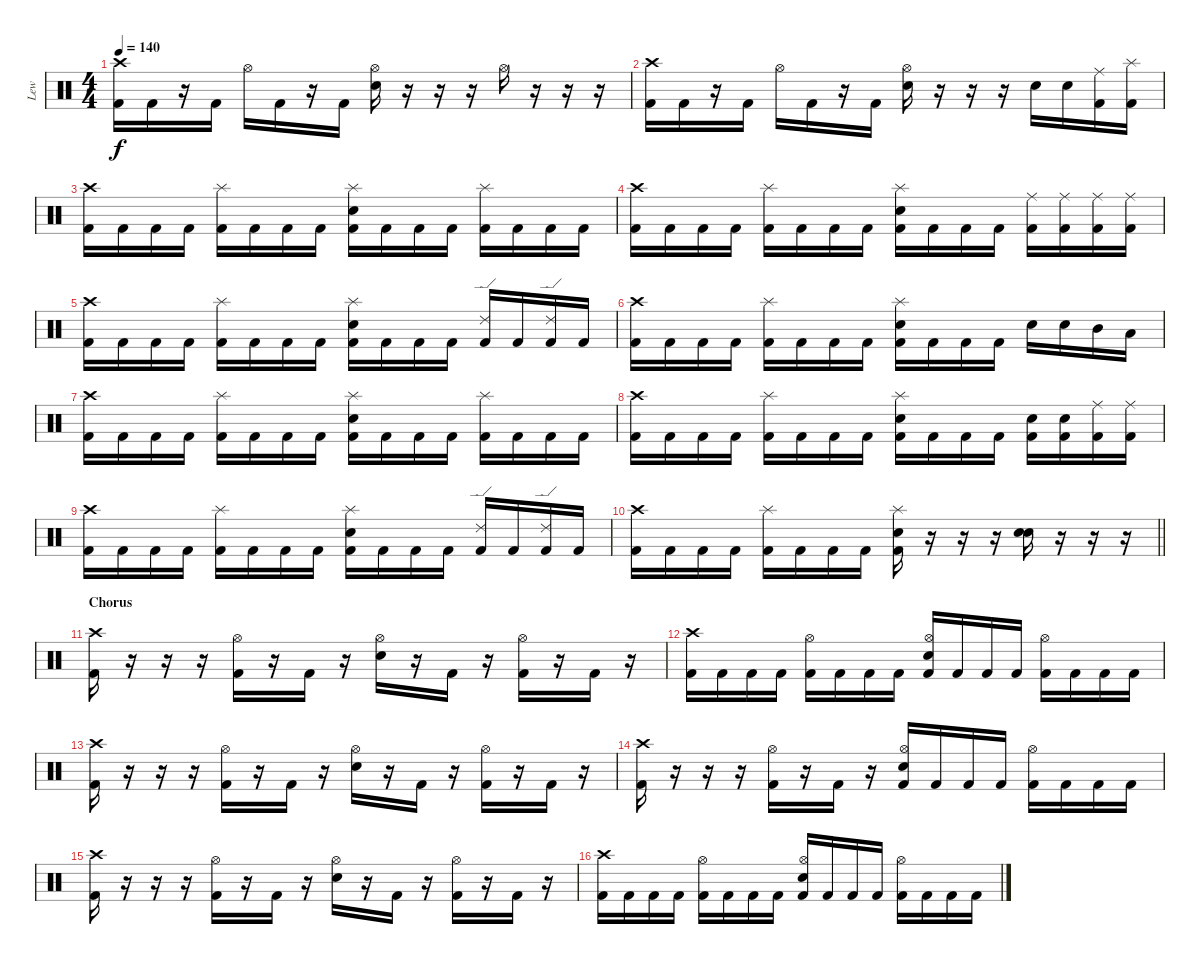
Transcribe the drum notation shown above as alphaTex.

\track ("Lew" "Lew") {instrument percussion}
\staff {score}
\articulation defaults
\ts (4 4)
\tempo 140
\clef neutral
\ks c
("Crash high (hit)" "Kick (hit) 2").16{dy f} "Kick (hit) 2".16 r.16 "Kick (hit) 2".16 "Hi-Hat (open)".16 "Kick (hit) 2".16 r.16 "Kick (hit) 2".16 ("Hi-Hat (open)" "Electric Snare (hit)").16 r.16 r.16 r.16 "Hi-Hat (open)".16 r.16 r.16 r.16 |
("Crash high (hit)" "Kick (hit) 2").16 "Kick (hit) 2".16 r.16 "Kick (hit) 2".16 "Hi-Hat (open)".16 "Kick (hit) 2".16 r.16 "Kick (hit) 2".16 ("Hi-Hat (open)" "Electric Snare (hit)").16 r.16 r.16 r.16 "Electric Snare (hit)".16 "Electric Snare (hit)".16 ("Ride (middle)" "Kick (hit) 2").16 ("Splash (hit)" "Kick (hit) 2").16 |
("Crash high (hit)" "Kick (hit) 2").16 "Kick (hit) 2".16 "Kick (hit) 2".16 "Kick (hit) 2".16 ("Splash (hit)" "Kick (hit) 2").16 "Kick (hit) 2".16 "Kick (hit) 2".16 "Kick (hit) 2".16 ("Splash (hit)" "Electric Snare (hit)" "Kick (hit) 2").16 "Kick (hit) 2".16 "Kick (hit) 2".16 "Kick (hit) 2".16 ("Splash (hit)" "Kick (hit) 2").16 "Kick (hit) 2".16 "Kick (hit) 2".16 "Kick (hit) 2".16 |
("Crash high (hit)" "Kick (hit) 2").16 "Kick (hit) 2".16 "Kick (hit) 2".16 "Kick (hit) 2".16 ("Splash (hit)" "Kick (hit) 2").16 "Kick (hit) 2".16 "Kick (hit) 2".16 "Kick (hit) 2".16 ("Splash (hit)" "Electric Snare (hit)" "Kick (hit) 2").16 "Kick (hit) 2".16 "Kick (hit) 2".16 "Kick (hit) 2".16 ("Ride (middle)" "Kick (hit) 2").16 ("Ride (middle)" "Kick (hit) 2").16 ("Ride (middle)" "Kick (hit) 2").16 ("Ride (middle)" "Kick (hit) 2").16 |
("Crash high (hit)" "Kick (hit) 2").16 "Kick (hit) 2".16 "Kick (hit) 2".16 "Kick (hit) 2".16 ("Splash (hit)" "Kick (hit) 2").16 "Kick (hit) 2".16 "Kick (hit) 2".16 "Kick (hit) 2".16 ("Splash (hit)" "Electric Snare (hit)" "Kick (hit) 2").16 "Kick (hit) 2".16 "Kick (hit) 2".16 "Kick (hit) 2".16 ("Ride (edge) 2" "Kick (hit) 2").16 "Kick (hit) 2".16 ("Ride (edge) 2" "Kick (hit) 2").16 "Kick (hit) 2".16 |
("Crash high (hit)" "Kick (hit) 2").16 "Kick (hit) 2".16 "Kick (hit) 2".16 "Kick (hit) 2".16 ("Splash (hit)" "Kick (hit) 2").16 "Kick (hit) 2".16 "Kick (hit) 2".16 "Kick (hit) 2".16 ("Splash (hit)" "Electric Snare (hit)" "Kick (hit) 2").16 "Kick (hit) 2".16 "Kick (hit) 2".16 "Kick (hit) 2".16 "Electric Snare (hit)".16 "Electric Snare (hit)".16 "Mid Tom (hit)".16 "Low Tom (hit)".16 |
("Crash high (hit)" "Kick (hit) 2").16 "Kick (hit) 2".16 "Kick (hit) 2".16 "Kick (hit) 2".16 ("Splash (hit)" "Kick (hit) 2").16 "Kick (hit) 2".16 "Kick (hit) 2".16 "Kick (hit) 2".16 ("Splash (hit)" "Electric Snare (hit)" "Kick (hit) 2").16 "Kick (hit) 2".16 "Kick (hit) 2".16 "Kick (hit) 2".16 ("Splash (hit)" "Kick (hit) 2").16 "Kick (hit) 2".16 "Kick (hit) 2".16 "Kick (hit) 2".16 |
("Crash high (hit)" "Kick (hit) 2").16 "Kick (hit) 2".16 "Kick (hit) 2".16 "Kick (hit) 2".16 ("Splash (hit)" "Kick (hit) 2").16 "Kick (hit) 2".16 "Kick (hit) 2".16 "Kick (hit) 2".16 ("Splash (hit)" "Electric Snare (hit)" "Kick (hit) 2").16 "Kick (hit) 2".16 "Kick (hit) 2".16 "Kick (hit) 2".16 ("Electric Snare (hit)" "Kick (hit) 2").16 ("Electric Snare (hit)" "Kick (hit) 2").16 ("Ride (middle)" "Kick (hit) 2").16 ("Ride (middle)" "Kick (hit) 2").16 |
("Crash high (hit)" "Kick (hit) 2").16 "Kick (hit) 2".16 "Kick (hit) 2".16 "Kick (hit) 2".16 ("Splash (hit)" "Kick (hit) 2").16 "Kick (hit) 2".16 "Kick (hit) 2".16 "Kick (hit) 2".16 ("Splash (hit)" "Electric Snare (hit)" "Kick (hit) 2").16 "Kick (hit) 2".16 "Kick (hit) 2".16 "Kick (hit) 2".16 ("Ride (edge) 2" "Kick (hit) 2").16 "Kick (hit) 2".16 ("Ride (edge) 2" "Kick (hit) 2").16 "Kick (hit) 2".16 |
\barLineRight lightlight
("Crash high (hit)" "Kick (hit) 2").16 "Kick (hit) 2".16 "Kick (hit) 2".16 "Kick (hit) 2".16 ("Splash (hit)" "Kick (hit) 2").16 "Kick (hit) 2".16 "Kick (hit) 2".16 "Kick (hit) 2".16 ("Splash (hit)" "Electric Snare (hit)" "Kick (hit) 2").16 r.16 r.16 r.16 ("Electric Snare (hit)" "Electric Snare (hit)").16 r.16 r.16 r.16 |
\section ("" "Chorus")
("Crash high (hit)" "Kick (hit) 2").16 r.16 r.16 r.16 ("Hi-Hat (open)" "Kick (hit) 2").16 r.16 "Kick (hit) 2".16 r.16 ("Hi-Hat (open)" "Electric Snare (hit)").16 r.16 "Kick (hit) 2".16 r.16 ("Hi-Hat (open)" "Kick (hit) 2").16 r.16 "Kick (hit) 2".16 r.16 |
("Crash high (hit)" "Kick (hit) 2").16 "Kick (hit) 2".16 "Kick (hit) 2".16 "Kick (hit) 2".16 ("Hi-Hat (open)" "Kick (hit) 2").16 "Kick (hit) 2".16 "Kick (hit) 2".16 "Kick (hit) 2".16 ("Hi-Hat (open)" "Electric Snare (hit)" "Kick (hit) 2").16 "Kick (hit) 2".16 "Kick (hit) 2".16 "Kick (hit) 2".16 ("Hi-Hat (open)" "Kick (hit) 2").16 "Kick (hit) 2".16 "Kick (hit) 2".16 "Kick (hit) 2".16 |
("Crash high (hit)" "Kick (hit) 2").16 r.16 r.16 r.16 ("Hi-Hat (open)" "Kick (hit) 2").16 r.16 "Kick (hit) 2".16 r.16 ("Hi-Hat (open)" "Electric Snare (hit)").16 r.16 "Kick (hit) 2".16 r.16 ("Hi-Hat (open)" "Kick (hit) 2").16 r.16 "Kick (hit) 2".16 r.16 |
("Crash high (hit)" "Kick (hit) 2").16 r.16 r.16 r.16 ("Hi-Hat (open)" "Kick (hit) 2").16 r.16 "Kick (hit) 2".16 r.16 ("Hi-Hat (open)" "Electric Snare (hit)" "Kick (hit) 2").16 "Kick (hit) 2".16 "Kick (hit) 2".16 "Kick (hit) 2".16 ("Hi-Hat (open)" "Kick (hit) 2").16 "Kick (hit) 2".16 "Kick (hit) 2".16 "Kick (hit) 2".16 |
("Crash high (hit)" "Kick (hit) 2").16 r.16 r.16 r.16 ("Hi-Hat (open)" "Kick (hit) 2").16 r.16 "Kick (hit) 2".16 r.16 ("Hi-Hat (open)" "Electric Snare (hit)").16 r.16 "Kick (hit) 2".16 r.16 ("Hi-Hat (open)" "Kick (hit) 2").16 r.16 "Kick (hit) 2".16 r.16 |
("Crash high (hit)" "Kick (hit) 2").16 "Kick (hit) 2".16 "Kick (hit) 2".16 "Kick (hit) 2".16 ("Hi-Hat (open)" "Kick (hit) 2").16 "Kick (hit) 2".16 "Kick (hit) 2".16 "Kick (hit) 2".16 ("Hi-Hat (open)" "Electric Snare (hit)" "Kick (hit) 2").16 "Kick (hit) 2".16 "Kick (hit) 2".16 "Kick (hit) 2".16 ("Hi-Hat (open)" "Kick (hit) 2").16 "Kick (hit) 2".16 "Kick (hit) 2".16 "Kick (hit) 2".16
